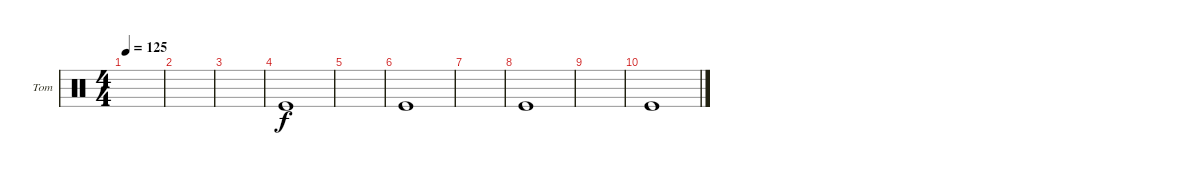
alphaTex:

\defaultSystemsLayout 4
\bracketExtendMode groupsimilarinstruments
\firstSystemTrackNameOrientation horizontal
\otherSystemsTrackNameOrientation horizontal
\track ("Melodic Tom" "Tom") {instrument percussion}
\staff {score}
\articulation defaults
\ts (4 4)
\tempo 125
\clef neutral
\scale
0.333333
\ks c
|
\scale
0.333333 |
\scale
0.333333 |
\scale
0.333333 "Kick (hit)".1 |
\scale
0.333333 |
\scale
0.333333 "Kick (hit)".1 |
\scale
0.333333 |
\scale
0.333333 "Kick (hit)".1 |
\scale
0.333333 |
\scale
0.333333 "Kick (hit)".1 |
\scale
0.333333 |
\scale
0.333333 |
\scale
0.333333 |
\scale
0.333333 |
\scale
0.333333 |
\scale
0.333333
